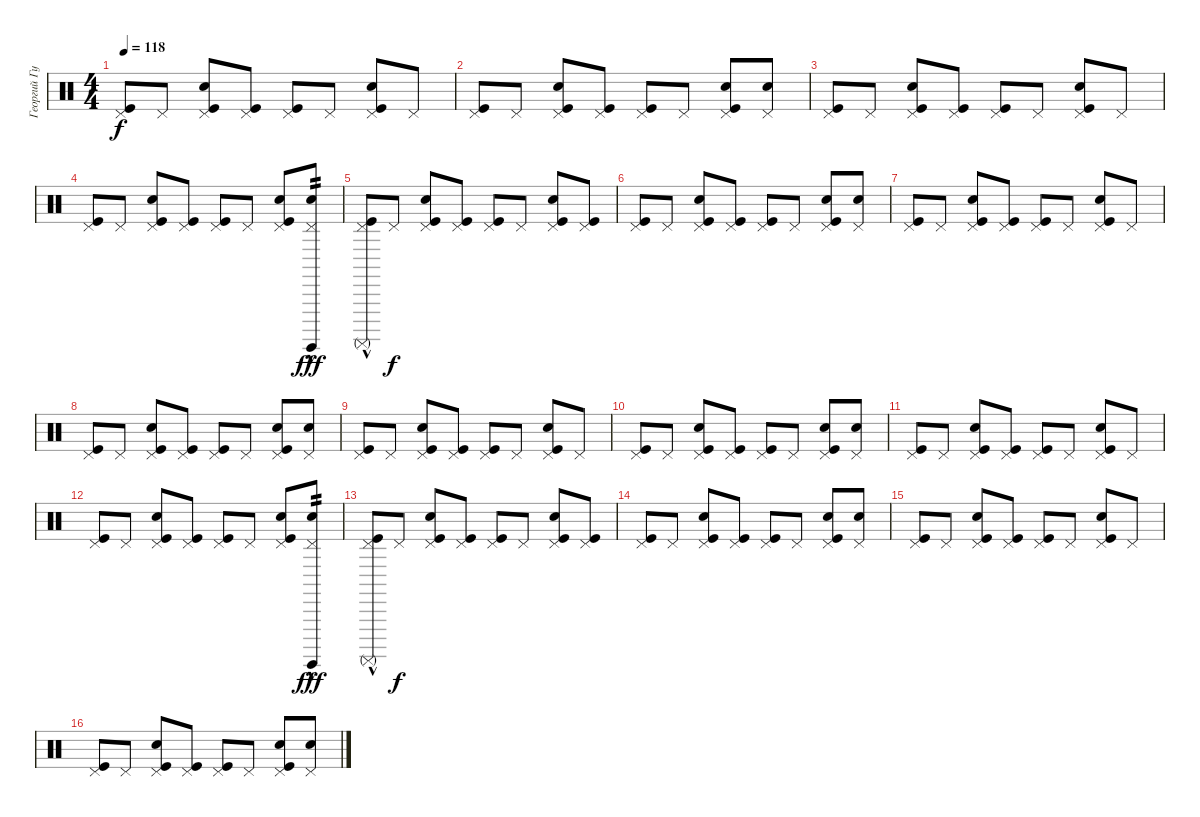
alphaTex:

\track ("Георгий Гурьянов" "Георгий Гу") {instrument percussion}
\staff {score}
\articulation defaults
\ts (4 4)
\tempo 118
\clef neutral
\ks c
("Pedal Hi-Hat (hit)" "Kick (hit)").8{dy f} "Pedal Hi-Hat (hit)".8 ("Pedal Hi-Hat (hit)" "Kick (hit)" "Snare (hit) 2").8 ("Pedal Hi-Hat (hit)" "Kick (hit)").8 ("Pedal Hi-Hat (hit)" "Kick (hit)").8 "Pedal Hi-Hat (hit)".8 ("Pedal Hi-Hat (hit)" "Kick (hit)" "Snare (hit) 2").8 "Pedal Hi-Hat (hit)".8 |
("Pedal Hi-Hat (hit)" "Kick (hit)").8 "Pedal Hi-Hat (hit)".8 ("Pedal Hi-Hat (hit)" "Kick (hit)" "Snare (hit) 2").8 ("Pedal Hi-Hat (hit)" "Kick (hit)").8 ("Pedal Hi-Hat (hit)" "Kick (hit)").8 "Pedal Hi-Hat (hit)".8 ("Pedal Hi-Hat (hit)" "Kick (hit)" "Snare (hit) 2").8 ("Pedal Hi-Hat (hit)" "Snare (hit) 2").8 |
("Pedal Hi-Hat (hit)" "Kick (hit)").8 "Pedal Hi-Hat (hit)".8 ("Pedal Hi-Hat (hit)" "Kick (hit)" "Snare (hit) 2").8 ("Pedal Hi-Hat (hit)" "Kick (hit)").8 ("Pedal Hi-Hat (hit)" "Kick (hit)").8 "Pedal Hi-Hat (hit)".8 ("Pedal Hi-Hat (hit)" "Kick (hit)" "Snare (hit) 2").8 "Pedal Hi-Hat (hit)".8 |
("Pedal Hi-Hat (hit)" "Kick (hit)").8 "Pedal Hi-Hat (hit)".8 ("Pedal Hi-Hat (hit)" "Kick (hit)" "Snare (hit) 2").8 ("Pedal Hi-Hat (hit)" "Kick (hit)").8 ("Pedal Hi-Hat (hit)" "Kick (hit)").8 "Pedal Hi-Hat (hit)".8 ("Pedal Hi-Hat (hit)" "Kick (hit)" "Snare (hit) 2").8 ("Pedal Hi-Hat (hit)" "Snare (hit) 2" "Surdo (hit)"{hac}).8{tp 2 dy fff} |
("Pedal Hi-Hat (hit)" "Kick (hit)" "Surdo (mute)"{hac}).8 "Pedal Hi-Hat (hit)".8{dy f} ("Pedal Hi-Hat (hit)" "Kick (hit)" "Snare (hit) 2").8 ("Pedal Hi-Hat (hit)" "Kick (hit)").8 ("Pedal Hi-Hat (hit)" "Kick (hit)").8 "Pedal Hi-Hat (hit)".8 ("Pedal Hi-Hat (hit)" "Kick (hit)" "Snare (hit) 2").8 ("Pedal Hi-Hat (hit)" "Kick (hit)").8 |
("Pedal Hi-Hat (hit)" "Kick (hit)").8 "Pedal Hi-Hat (hit)".8 ("Pedal Hi-Hat (hit)" "Kick (hit)" "Snare (hit) 2").8 ("Pedal Hi-Hat (hit)" "Kick (hit)").8 ("Pedal Hi-Hat (hit)" "Kick (hit)").8 "Pedal Hi-Hat (hit)".8 ("Pedal Hi-Hat (hit)" "Kick (hit)" "Snare (hit) 2").8 ("Pedal Hi-Hat (hit)" "Snare (hit) 2").8 |
("Pedal Hi-Hat (hit)" "Kick (hit)").8 "Pedal Hi-Hat (hit)".8 ("Pedal Hi-Hat (hit)" "Kick (hit)" "Snare (hit) 2").8 ("Pedal Hi-Hat (hit)" "Kick (hit)").8 ("Pedal Hi-Hat (hit)" "Kick (hit)").8 "Pedal Hi-Hat (hit)".8 ("Pedal Hi-Hat (hit)" "Kick (hit)" "Snare (hit) 2").8 "Pedal Hi-Hat (hit)".8 |
("Pedal Hi-Hat (hit)" "Kick (hit)").8 "Pedal Hi-Hat (hit)".8 ("Pedal Hi-Hat (hit)" "Kick (hit)" "Snare (hit) 2").8 ("Pedal Hi-Hat (hit)" "Kick (hit)").8 ("Pedal Hi-Hat (hit)" "Kick (hit)").8 "Pedal Hi-Hat (hit)".8 ("Pedal Hi-Hat (hit)" "Kick (hit)" "Snare (hit) 2").8 ("Pedal Hi-Hat (hit)" "Snare (hit) 2").8 |
("Pedal Hi-Hat (hit)" "Kick (hit)").8 "Pedal Hi-Hat (hit)".8 ("Pedal Hi-Hat (hit)" "Kick (hit)" "Snare (hit) 2").8 ("Pedal Hi-Hat (hit)" "Kick (hit)").8 ("Pedal Hi-Hat (hit)" "Kick (hit)").8 "Pedal Hi-Hat (hit)".8 ("Pedal Hi-Hat (hit)" "Kick (hit)" "Snare (hit) 2").8 "Pedal Hi-Hat (hit)".8 |
("Pedal Hi-Hat (hit)" "Kick (hit)").8 "Pedal Hi-Hat (hit)".8 ("Pedal Hi-Hat (hit)" "Kick (hit)" "Snare (hit) 2").8 ("Pedal Hi-Hat (hit)" "Kick (hit)").8 ("Pedal Hi-Hat (hit)" "Kick (hit)").8 "Pedal Hi-Hat (hit)".8 ("Pedal Hi-Hat (hit)" "Kick (hit)" "Snare (hit) 2").8 ("Pedal Hi-Hat (hit)" "Snare (hit) 2").8 |
("Pedal Hi-Hat (hit)" "Kick (hit)").8 "Pedal Hi-Hat (hit)".8 ("Pedal Hi-Hat (hit)" "Kick (hit)" "Snare (hit) 2").8 ("Pedal Hi-Hat (hit)" "Kick (hit)").8 ("Pedal Hi-Hat (hit)" "Kick (hit)").8 "Pedal Hi-Hat (hit)".8 ("Pedal Hi-Hat (hit)" "Kick (hit)" "Snare (hit) 2").8 "Pedal Hi-Hat (hit)".8 |
("Pedal Hi-Hat (hit)" "Kick (hit)").8 "Pedal Hi-Hat (hit)".8 ("Pedal Hi-Hat (hit)" "Kick (hit)" "Snare (hit) 2").8 ("Pedal Hi-Hat (hit)" "Kick (hit)").8 ("Pedal Hi-Hat (hit)" "Kick (hit)").8 "Pedal Hi-Hat (hit)".8 ("Pedal Hi-Hat (hit)" "Kick (hit)" "Snare (hit) 2").8 ("Pedal Hi-Hat (hit)" "Snare (hit) 2" "Surdo (hit)"{hac}).8{tp 2 dy fff} |
("Pedal Hi-Hat (hit)" "Kick (hit)" "Surdo (mute)"{hac}).8 "Pedal Hi-Hat (hit)".8{dy f} ("Pedal Hi-Hat (hit)" "Kick (hit)" "Snare (hit) 2").8 ("Pedal Hi-Hat (hit)" "Kick (hit)").8 ("Pedal Hi-Hat (hit)" "Kick (hit)").8 "Pedal Hi-Hat (hit)".8 ("Pedal Hi-Hat (hit)" "Kick (hit)" "Snare (hit) 2").8 ("Pedal Hi-Hat (hit)" "Kick (hit)").8 |
("Pedal Hi-Hat (hit)" "Kick (hit)").8 "Pedal Hi-Hat (hit)".8 ("Pedal Hi-Hat (hit)" "Kick (hit)" "Snare (hit) 2").8 ("Pedal Hi-Hat (hit)" "Kick (hit)").8 ("Pedal Hi-Hat (hit)" "Kick (hit)").8 "Pedal Hi-Hat (hit)".8 ("Pedal Hi-Hat (hit)" "Kick (hit)" "Snare (hit) 2").8 ("Pedal Hi-Hat (hit)" "Snare (hit) 2").8 |
("Pedal Hi-Hat (hit)" "Kick (hit)").8 "Pedal Hi-Hat (hit)".8 ("Pedal Hi-Hat (hit)" "Kick (hit)" "Snare (hit) 2").8 ("Pedal Hi-Hat (hit)" "Kick (hit)").8 ("Pedal Hi-Hat (hit)" "Kick (hit)").8 "Pedal Hi-Hat (hit)".8 ("Pedal Hi-Hat (hit)" "Kick (hit)" "Snare (hit) 2").8 "Pedal Hi-Hat (hit)".8 |
("Pedal Hi-Hat (hit)" "Kick (hit)").8 "Pedal Hi-Hat (hit)".8 ("Pedal Hi-Hat (hit)" "Kick (hit)" "Snare (hit) 2").8 ("Pedal Hi-Hat (hit)" "Kick (hit)").8 ("Pedal Hi-Hat (hit)" "Kick (hit)").8 "Pedal Hi-Hat (hit)".8 ("Pedal Hi-Hat (hit)" "Kick (hit)" "Snare (hit) 2").8 ("Pedal Hi-Hat (hit)" "Snare (hit) 2").8
